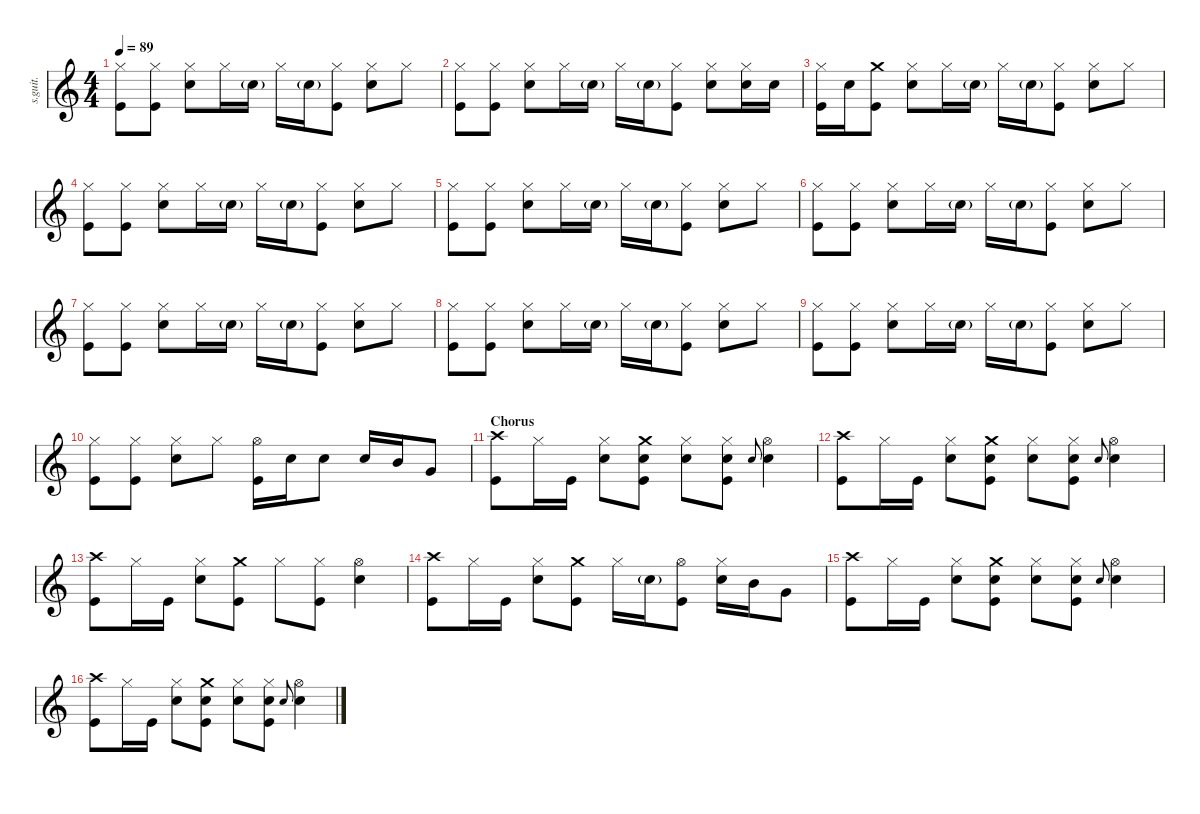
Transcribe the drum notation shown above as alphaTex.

\defaultSystemsLayout 4
\hideDynamics
\bracketExtendMode nobrackets
\track ("Chad Smith" "s.guit.") {instrument percussion}
\staff {score}
\articulation defaults
\ts (4 4)
\tempo 89
\clef g2
\ks c
("Hi-Hat (closed)" "Kick (hit)").8{lyrics (0 "") lyrics (1 "") lyrics (2 "") lyrics (3 "") lyrics (4 "") dy f} ("Hi-Hat (closed)" "Kick (hit)").8{lyrics (0 "") lyrics (1 "") lyrics (2 "") lyrics (3 "") lyrics (4 "")} ("Hi-Hat (closed)" "Snare (hit) 2").8{lyrics (0 "") lyrics (1 "") lyrics (2 "") lyrics (3 "") lyrics (4 "")} "Hi-Hat (closed)".16{lyrics (0 "") lyrics (1 "") lyrics (2 "") lyrics (3 "") lyrics (4 "")} "Snare (hit) 2"{g}.16{lyrics (0 "") lyrics (1 "") lyrics (2 "") lyrics (3 "") lyrics (4 "") dy ppp} "Hi-Hat (closed)".16{lyrics (0 "") lyrics (1 "") lyrics (2 "") lyrics (3 "") lyrics (4 "") dy fff} "Snare (hit) 2"{g}.16{lyrics (0 "") lyrics (1 "") lyrics (2 "") lyrics (3 "") lyrics (4 "") dy ppp} ("Hi-Hat (closed)" "Kick (hit)").8{lyrics (0 "") lyrics (1 "") lyrics (2 "") lyrics (3 "") lyrics (4 "") dy f} ("Hi-Hat (closed)" "Snare (hit) 2").8{lyrics (0 "") lyrics (1 "") lyrics (2 "") lyrics (3 "") lyrics (4 "")} "Hi-Hat (closed)".8{lyrics (0 "") lyrics (1 "") lyrics (2 "") lyrics (3 "") lyrics (4 "")} |
("Hi-Hat (closed)" "Kick (hit)").8{lyrics (0 "") lyrics (1 "") lyrics (2 "") lyrics (3 "") lyrics (4 "")} ("Hi-Hat (closed)" "Kick (hit)").8{lyrics (0 "") lyrics (1 "") lyrics (2 "") lyrics (3 "") lyrics (4 "")} ("Hi-Hat (closed)" "Snare (hit) 2").8{lyrics (0 "") lyrics (1 "") lyrics (2 "") lyrics (3 "") lyrics (4 "")} "Hi-Hat (closed)".16{lyrics (0 "") lyrics (1 "") lyrics (2 "") lyrics (3 "") lyrics (4 "")} "Snare (hit) 2"{g}.16{lyrics (0 "") lyrics (1 "") lyrics (2 "") lyrics (3 "") lyrics (4 "") dy ppp} "Hi-Hat (closed)".16{lyrics (0 "") lyrics (1 "") lyrics (2 "") lyrics (3 "") lyrics (4 "") dy fff} "Snare (hit) 2"{g}.16{lyrics (0 "") lyrics (1 "") lyrics (2 "") lyrics (3 "") lyrics (4 "") dy ppp} ("Hi-Hat (closed)" "Kick (hit)").8{lyrics (0 "") lyrics (1 "") lyrics (2 "") lyrics (3 "") lyrics (4 "") dy f} ("Hi-Hat (closed)" "Snare (hit) 2").8{lyrics (0 "") lyrics (1 "") lyrics (2 "") lyrics (3 "") lyrics (4 "")} ("Hi-Hat (closed)" "Snare (hit) 2").16{lyrics (0 "") lyrics (1 "") lyrics (2 "") lyrics (3 "") lyrics (4 "")} "Snare (hit) 2".16{lyrics (0 "") lyrics (1 "") lyrics (2 "") lyrics (3 "") lyrics (4 "")} |
("Hi-Hat (closed)" "Kick (hit)").16{lyrics (0 "") lyrics (1 "") lyrics (2 "") lyrics (3 "") lyrics (4 "")} "Snare (hit) 2".16{lyrics (0 "") lyrics (1 "") lyrics (2 "") lyrics (3 "") lyrics (4 "")} ("Crash medium (hit)" "Kick (hit)").8{lyrics (0 "") lyrics (1 "") lyrics (2 "") lyrics (3 "") lyrics (4 "")} ("Hi-Hat (closed)" "Snare (hit) 2").8{lyrics (0 "") lyrics (1 "") lyrics (2 "") lyrics (3 "") lyrics (4 "")} "Hi-Hat (closed)".16{lyrics (0 "") lyrics (1 "") lyrics (2 "") lyrics (3 "") lyrics (4 "")} "Snare (hit) 2"{g}.16{lyrics (0 "") lyrics (1 "") lyrics (2 "") lyrics (3 "") lyrics (4 "") dy ppp} "Hi-Hat (closed)".16{lyrics (0 "") lyrics (1 "") lyrics (2 "") lyrics (3 "") lyrics (4 "") dy fff} "Snare (hit) 2"{g}.16{lyrics (0 "") lyrics (1 "") lyrics (2 "") lyrics (3 "") lyrics (4 "") dy ppp} ("Hi-Hat (closed)" "Kick (hit)").8{lyrics (0 "") lyrics (1 "") lyrics (2 "") lyrics (3 "") lyrics (4 "") dy f} ("Hi-Hat (closed)" "Snare (hit) 2").8{lyrics (0 "") lyrics (1 "") lyrics (2 "") lyrics (3 "") lyrics (4 "")} "Hi-Hat (closed)".8{lyrics (0 "") lyrics (1 "") lyrics (2 "") lyrics (3 "") lyrics (4 "")} |
("Hi-Hat (closed)" "Kick (hit)").8{lyrics (0 "") lyrics (1 "") lyrics (2 "") lyrics (3 "") lyrics (4 "")} ("Hi-Hat (closed)" "Kick (hit)").8{lyrics (0 "") lyrics (1 "") lyrics (2 "") lyrics (3 "") lyrics (4 "")} ("Hi-Hat (closed)" "Snare (hit) 2").8{lyrics (0 "") lyrics (1 "") lyrics (2 "") lyrics (3 "") lyrics (4 "")} "Hi-Hat (closed)".16{lyrics (0 "") lyrics (1 "") lyrics (2 "") lyrics (3 "") lyrics (4 "")} "Snare (hit) 2"{g}.16{lyrics (0 "") lyrics (1 "") lyrics (2 "") lyrics (3 "") lyrics (4 "") dy ppp} "Hi-Hat (closed)".16{lyrics (0 "") lyrics (1 "") lyrics (2 "") lyrics (3 "") lyrics (4 "") dy fff} "Snare (hit) 2"{g}.16{lyrics (0 "") lyrics (1 "") lyrics (2 "") lyrics (3 "") lyrics (4 "") dy ppp} ("Hi-Hat (closed)" "Kick (hit)").8{lyrics (0 "") lyrics (1 "") lyrics (2 "") lyrics (3 "") lyrics (4 "") dy f} ("Hi-Hat (closed)" "Snare (hit) 2").8{lyrics (0 "") lyrics (1 "") lyrics (2 "") lyrics (3 "") lyrics (4 "")} "Hi-Hat (closed)".8{lyrics (0 "") lyrics (1 "") lyrics (2 "") lyrics (3 "") lyrics (4 "")} |
("Hi-Hat (closed)" "Kick (hit)").8{lyrics (0 "") lyrics (1 "") lyrics (2 "") lyrics (3 "") lyrics (4 "")} ("Hi-Hat (closed)" "Kick (hit)").8{lyrics (0 "") lyrics (1 "") lyrics (2 "") lyrics (3 "") lyrics (4 "")} ("Hi-Hat (closed)" "Snare (hit) 2").8{lyrics (0 "") lyrics (1 "") lyrics (2 "") lyrics (3 "") lyrics (4 "")} "Hi-Hat (closed)".16{lyrics (0 "") lyrics (1 "") lyrics (2 "") lyrics (3 "") lyrics (4 "")} "Snare (hit) 2"{g}.16{lyrics (0 "") lyrics (1 "") lyrics (2 "") lyrics (3 "") lyrics (4 "") dy ppp} "Hi-Hat (closed)".16{lyrics (0 "") lyrics (1 "") lyrics (2 "") lyrics (3 "") lyrics (4 "") dy fff} "Snare (hit) 2"{g}.16{lyrics (0 "") lyrics (1 "") lyrics (2 "") lyrics (3 "") lyrics (4 "") dy ppp} ("Hi-Hat (closed)" "Kick (hit)").8{lyrics (0 "") lyrics (1 "") lyrics (2 "") lyrics (3 "") lyrics (4 "") dy f} ("Hi-Hat (closed)" "Snare (hit) 2").8{lyrics (0 "") lyrics (1 "") lyrics (2 "") lyrics (3 "") lyrics (4 "")} "Hi-Hat (closed)".8{lyrics (0 "") lyrics (1 "") lyrics (2 "") lyrics (3 "") lyrics (4 "")} |
("Hi-Hat (closed)" "Kick (hit)").8{lyrics (0 "") lyrics (1 "") lyrics (2 "") lyrics (3 "") lyrics (4 "")} ("Hi-Hat (closed)" "Kick (hit)").8{lyrics (0 "") lyrics (1 "") lyrics (2 "") lyrics (3 "") lyrics (4 "")} ("Hi-Hat (closed)" "Snare (hit) 2").8{lyrics (0 "") lyrics (1 "") lyrics (2 "") lyrics (3 "") lyrics (4 "")} "Hi-Hat (closed)".16{lyrics (0 "") lyrics (1 "") lyrics (2 "") lyrics (3 "") lyrics (4 "")} "Snare (hit) 2"{g}.16{lyrics (0 "") lyrics (1 "") lyrics (2 "") lyrics (3 "") lyrics (4 "") dy ppp} "Hi-Hat (closed)".16{lyrics (0 "") lyrics (1 "") lyrics (2 "") lyrics (3 "") lyrics (4 "") dy fff} "Snare (hit) 2"{g}.16{lyrics (0 "") lyrics (1 "") lyrics (2 "") lyrics (3 "") lyrics (4 "") dy ppp} ("Hi-Hat (closed)" "Kick (hit)").8{lyrics (0 "") lyrics (1 "") lyrics (2 "") lyrics (3 "") lyrics (4 "") dy f} ("Hi-Hat (closed)" "Snare (hit) 2").8{lyrics (0 "") lyrics (1 "") lyrics (2 "") lyrics (3 "") lyrics (4 "")} "Hi-Hat (closed)".8{lyrics (0 "") lyrics (1 "") lyrics (2 "") lyrics (3 "") lyrics (4 "")} |
("Hi-Hat (closed)" "Kick (hit)").8{lyrics (0 "") lyrics (1 "") lyrics (2 "") lyrics (3 "") lyrics (4 "")} ("Hi-Hat (closed)" "Kick (hit)").8{lyrics (0 "") lyrics (1 "") lyrics (2 "") lyrics (3 "") lyrics (4 "")} ("Hi-Hat (closed)" "Snare (hit) 2").8{lyrics (0 "") lyrics (1 "") lyrics (2 "") lyrics (3 "") lyrics (4 "")} "Hi-Hat (closed)".16{lyrics (0 "") lyrics (1 "") lyrics (2 "") lyrics (3 "") lyrics (4 "")} "Snare (hit) 2"{g}.16{lyrics (0 "") lyrics (1 "") lyrics (2 "") lyrics (3 "") lyrics (4 "") dy ppp} "Hi-Hat (closed)".16{lyrics (0 "") lyrics (1 "") lyrics (2 "") lyrics (3 "") lyrics (4 "") dy fff} "Snare (hit) 2"{g}.16{lyrics (0 "") lyrics (1 "") lyrics (2 "") lyrics (3 "") lyrics (4 "") dy ppp} ("Hi-Hat (closed)" "Kick (hit)").8{lyrics (0 "") lyrics (1 "") lyrics (2 "") lyrics (3 "") lyrics (4 "") dy f} ("Hi-Hat (closed)" "Snare (hit) 2").8{lyrics (0 "") lyrics (1 "") lyrics (2 "") lyrics (3 "") lyrics (4 "")} "Hi-Hat (closed)".8{lyrics (0 "") lyrics (1 "") lyrics (2 "") lyrics (3 "") lyrics (4 "")} |
("Hi-Hat (closed)" "Kick (hit)").8{lyrics (0 "") lyrics (1 "") lyrics (2 "") lyrics (3 "") lyrics (4 "")} ("Hi-Hat (closed)" "Kick (hit)").8{lyrics (0 "") lyrics (1 "") lyrics (2 "") lyrics (3 "") lyrics (4 "")} ("Hi-Hat (closed)" "Snare (hit) 2").8{lyrics (0 "") lyrics (1 "") lyrics (2 "") lyrics (3 "") lyrics (4 "")} "Hi-Hat (closed)".16{lyrics (0 "") lyrics (1 "") lyrics (2 "") lyrics (3 "") lyrics (4 "")} "Snare (hit) 2"{g}.16{lyrics (0 "") lyrics (1 "") lyrics (2 "") lyrics (3 "") lyrics (4 "") dy ppp} "Hi-Hat (closed)".16{lyrics (0 "") lyrics (1 "") lyrics (2 "") lyrics (3 "") lyrics (4 "") dy fff} "Snare (hit) 2"{g}.16{lyrics (0 "") lyrics (1 "") lyrics (2 "") lyrics (3 "") lyrics (4 "") dy ppp} ("Hi-Hat (closed)" "Kick (hit)").8{lyrics (0 "") lyrics (1 "") lyrics (2 "") lyrics (3 "") lyrics (4 "") dy f} ("Hi-Hat (closed)" "Snare (hit) 2").8{lyrics (0 "") lyrics (1 "") lyrics (2 "") lyrics (3 "") lyrics (4 "")} "Hi-Hat (closed)".8{lyrics (0 "") lyrics (1 "") lyrics (2 "") lyrics (3 "") lyrics (4 "")} |
("Hi-Hat (closed)" "Kick (hit)").8{lyrics (0 "") lyrics (1 "") lyrics (2 "") lyrics (3 "") lyrics (4 "")} ("Hi-Hat (closed)" "Kick (hit)").8{lyrics (0 "") lyrics (1 "") lyrics (2 "") lyrics (3 "") lyrics (4 "")} ("Hi-Hat (closed)" "Snare (hit) 2").8{lyrics (0 "") lyrics (1 "") lyrics (2 "") lyrics (3 "") lyrics (4 "")} "Hi-Hat (closed)".16{lyrics (0 "") lyrics (1 "") lyrics (2 "") lyrics (3 "") lyrics (4 "")} "Snare (hit) 2"{g}.16{lyrics (0 "") lyrics (1 "") lyrics (2 "") lyrics (3 "") lyrics (4 "") dy ppp} "Hi-Hat (closed)".16{lyrics (0 "") lyrics (1 "") lyrics (2 "") lyrics (3 "") lyrics (4 "") dy fff} "Snare (hit) 2"{g}.16{lyrics (0 "") lyrics (1 "") lyrics (2 "") lyrics (3 "") lyrics (4 "") dy ppp} ("Hi-Hat (closed)" "Kick (hit)").8{lyrics (0 "") lyrics (1 "") lyrics (2 "") lyrics (3 "") lyrics (4 "") dy f} ("Hi-Hat (closed)" "Snare (hit) 2").8{lyrics (0 "") lyrics (1 "") lyrics (2 "") lyrics (3 "") lyrics (4 "")} "Hi-Hat (closed)".8{lyrics (0 "") lyrics (1 "") lyrics (2 "") lyrics (3 "") lyrics (4 "")} |
("Hi-Hat (closed)" "Kick (hit)").8{lyrics (0 "") lyrics (1 "") lyrics (2 "") lyrics (3 "") lyrics (4 "")} ("Hi-Hat (closed)" "Kick (hit)").8{lyrics (0 "") lyrics (1 "") lyrics (2 "") lyrics (3 "") lyrics (4 "")} ("Hi-Hat (closed)" "Snare (hit) 2").8{lyrics (0 "") lyrics (1 "") lyrics (2 "") lyrics (3 "") lyrics (4 "")} "Hi-Hat (closed)".8{lyrics (0 "") lyrics (1 "") lyrics (2 "") lyrics (3 "") lyrics (4 "")} ("Hi-Hat (open)" "Kick (hit)").16{lyrics (0 "") lyrics (1 "") lyrics (2 "") lyrics (3 "") lyrics (4 "")} "Snare (hit) 2".16{lyrics (0 "") lyrics (1 "") lyrics (2 "") lyrics (3 "") lyrics (4 "")} "Snare (hit) 2".8{lyrics (0 "") lyrics (1 "") lyrics (2 "") lyrics (3 "") lyrics (4 "")} "Snare (hit) 2".16{lyrics (0 "") lyrics (1 "") lyrics (2 "") lyrics (3 "") lyrics (4 "")} "Mid Tom (hit)".16{lyrics (0 "") lyrics (1 "") lyrics (2 "") lyrics (3 "") lyrics (4 "") dy fff} "Very Low Tom (hit)".8{lyrics (0 "") lyrics (1 "") lyrics (2 "") lyrics (3 "") lyrics (4 "")} |
\section ("" "Chorus")
("Crash high (hit)" "Kick (hit)").8{lyrics (0 "") lyrics (1 "") lyrics (2 "") lyrics (3 "") lyrics (4 "") dy f} "Hi-Hat (closed)".16{lyrics (0 "") lyrics (1 "") lyrics (2 "") lyrics (3 "") lyrics (4 "")} "Kick (hit)".16{lyrics (0 "") lyrics (1 "") lyrics (2 "") lyrics (3 "") lyrics (4 "")} ("Hi-Hat (closed)" "Snare (hit) 2").8{lyrics (0 "") lyrics (1 "") lyrics (2 "") lyrics (3 "") lyrics (4 "")} ("Crash medium (hit)" "Hand Clap (hit)" "Kick (hit)").8{lyrics (0 "") lyrics (1 "") lyrics (2 "") lyrics (3 "") lyrics (4 "")} ("Hi-Hat (closed)" "Hand Clap (hit)").8{lyrics (0 "") lyrics (1 "") lyrics (2 "") lyrics (3 "") lyrics (4 "")} ("Hi-Hat (closed)" "Hand Clap (hit)" "Kick (hit)").8{lyrics (0 "") lyrics (1 "") lyrics (2 "") lyrics (3 "") lyrics (4 "")} "Snare (hit) 2".8{lyrics (0 "") lyrics (1 "") lyrics (2 "") lyrics (3 "") lyrics (4 "") gr onbeat} ("Hi-Hat (open)" "Snare (hit) 2").4{lyrics (0 "") lyrics (1 "") lyrics (2 "") lyrics (3 "") lyrics (4 "")} |
("Crash high (hit)" "Kick (hit)").8{lyrics (0 "") lyrics (1 "") lyrics (2 "") lyrics (3 "") lyrics (4 "")} "Hi-Hat (closed)".16{lyrics (0 "") lyrics (1 "") lyrics (2 "") lyrics (3 "") lyrics (4 "")} "Kick (hit)".16{lyrics (0 "") lyrics (1 "") lyrics (2 "") lyrics (3 "") lyrics (4 "")} ("Hi-Hat (closed)" "Snare (hit) 2").8{lyrics (0 "") lyrics (1 "") lyrics (2 "") lyrics (3 "") lyrics (4 "")} ("Crash medium (hit)" "Hand Clap (hit)" "Kick (hit)").8{lyrics (0 "") lyrics (1 "") lyrics (2 "") lyrics (3 "") lyrics (4 "")} ("Hi-Hat (closed)" "Hand Clap (hit)").8{lyrics (0 "") lyrics (1 "") lyrics (2 "") lyrics (3 "") lyrics (4 "")} ("Hi-Hat (closed)" "Hand Clap (hit)" "Kick (hit)").8{lyrics (0 "") lyrics (1 "") lyrics (2 "") lyrics (3 "") lyrics (4 "")} "Snare (hit) 2".8{lyrics (0 "") lyrics (1 "") lyrics (2 "") lyrics (3 "") lyrics (4 "") gr onbeat} ("Hi-Hat (open)" "Snare (hit) 2").4{lyrics (0 "") lyrics (1 "") lyrics (2 "") lyrics (3 "") lyrics (4 "")} |
("Crash high (hit)" "Kick (hit)").8{lyrics (0 "") lyrics (1 "") lyrics (2 "") lyrics (3 "") lyrics (4 "")} "Hi-Hat (closed)".16{lyrics (0 "") lyrics (1 "") lyrics (2 "") lyrics (3 "") lyrics (4 "")} "Kick (hit)".16{lyrics (0 "") lyrics (1 "") lyrics (2 "") lyrics (3 "") lyrics (4 "")} ("Hi-Hat (closed)" "Snare (hit) 2").8{lyrics (0 "") lyrics (1 "") lyrics (2 "") lyrics (3 "") lyrics (4 "")} ("Crash medium (hit)" "Kick (hit)").8{lyrics (0 "") lyrics (1 "") lyrics (2 "") lyrics (3 "") lyrics (4 "")} "Hi-Hat (closed)".8{lyrics (0 "") lyrics (1 "") lyrics (2 "") lyrics (3 "") lyrics (4 "") dy fff} ("Hi-Hat (closed)" "Kick (hit)").8{lyrics (0 "") lyrics (1 "") lyrics (2 "") lyrics (3 "") lyrics (4 "") dy f} ("Hi-Hat (open)" "Snare (hit) 2").4{lyrics (0 "") lyrics (1 "") lyrics (2 "") lyrics (3 "") lyrics (4 "")} |
("Crash high (hit)" "Kick (hit)").8{lyrics (0 "") lyrics (1 "") lyrics (2 "") lyrics (3 "") lyrics (4 "")} "Hi-Hat (closed)".16{lyrics (0 "") lyrics (1 "") lyrics (2 "") lyrics (3 "") lyrics (4 "")} "Kick (hit)".16{lyrics (0 "") lyrics (1 "") lyrics (2 "") lyrics (3 "") lyrics (4 "")} ("Hi-Hat (closed)" "Snare (hit) 2").8{lyrics (0 "") lyrics (1 "") lyrics (2 "") lyrics (3 "") lyrics (4 "")} ("Crash medium (hit)" "Kick (hit)").8{lyrics (0 "") lyrics (1 "") lyrics (2 "") lyrics (3 "") lyrics (4 "")} "Hi-Hat (closed)".16{lyrics (0 "") lyrics (1 "") lyrics (2 "") lyrics (3 "") lyrics (4 "") dy fff} "Snare (hit) 2"{g}.16{lyrics (0 "") lyrics (1 "") lyrics (2 "") lyrics (3 "") lyrics (4 "") dy ppp} ("Hi-Hat (open)" "Kick (hit)").8{lyrics (0 "") lyrics (1 "") lyrics (2 "") lyrics (3 "") lyrics (4 "") dy f} ("Hi-Hat (closed)" "Snare (hit) 2").16{lyrics (0 "") lyrics (1 "") lyrics (2 "") lyrics (3 "") lyrics (4 "")} "Mid Tom (hit)".16{lyrics (0 "") lyrics (1 "") lyrics (2 "") lyrics (3 "") lyrics (4 "")} "Very Low Tom (hit)".8{lyrics (0 "") lyrics (1 "") lyrics (2 "") lyrics (3 "") lyrics (4 "") dy fff} |
("Crash high (hit)" "Kick (hit)").8{lyrics (0 "") lyrics (1 "") lyrics (2 "") lyrics (3 "") lyrics (4 "") dy f} "Hi-Hat (closed)".16{lyrics (0 "") lyrics (1 "") lyrics (2 "") lyrics (3 "") lyrics (4 "")} "Kick (hit)".16{lyrics (0 "") lyrics (1 "") lyrics (2 "") lyrics (3 "") lyrics (4 "")} ("Hi-Hat (closed)" "Snare (hit) 2").8{lyrics (0 "") lyrics (1 "") lyrics (2 "") lyrics (3 "") lyrics (4 "")} ("Crash medium (hit)" "Hand Clap (hit)" "Kick (hit)").8{lyrics (0 "") lyrics (1 "") lyrics (2 "") lyrics (3 "") lyrics (4 "")} ("Hi-Hat (closed)" "Hand Clap (hit)").8{lyrics (0 "") lyrics (1 "") lyrics (2 "") lyrics (3 "") lyrics (4 "")} ("Hi-Hat (closed)" "Hand Clap (hit)" "Kick (hit)").8{lyrics (0 "") lyrics (1 "") lyrics (2 "") lyrics (3 "") lyrics (4 "")} "Snare (hit) 2".8{lyrics (0 "") lyrics (1 "") lyrics (2 "") lyrics (3 "") lyrics (4 "") gr onbeat} ("Hi-Hat (open)" "Snare (hit) 2").4{lyrics (0 "") lyrics (1 "") lyrics (2 "") lyrics (3 "") lyrics (4 "")} |
("Crash high (hit)" "Kick (hit)").8{lyrics (0 "") lyrics (1 "") lyrics (2 "") lyrics (3 "") lyrics (4 "")} "Hi-Hat (closed)".16{lyrics (0 "") lyrics (1 "") lyrics (2 "") lyrics (3 "") lyrics (4 "")} "Kick (hit)".16{lyrics (0 "") lyrics (1 "") lyrics (2 "") lyrics (3 "") lyrics (4 "")} ("Hi-Hat (closed)" "Snare (hit) 2").8{lyrics (0 "") lyrics (1 "") lyrics (2 "") lyrics (3 "") lyrics (4 "")} ("Crash medium (hit)" "Hand Clap (hit)" "Kick (hit)").8{lyrics (0 "") lyrics (1 "") lyrics (2 "") lyrics (3 "") lyrics (4 "")} ("Hi-Hat (closed)" "Hand Clap (hit)").8{lyrics (0 "") lyrics (1 "") lyrics (2 "") lyrics (3 "") lyrics (4 "")} ("Hi-Hat (closed)" "Hand Clap (hit)" "Kick (hit)").8{lyrics (0 "") lyrics (1 "") lyrics (2 "") lyrics (3 "") lyrics (4 "")} "Snare (hit) 2".8{lyrics (0 "") lyrics (1 "") lyrics (2 "") lyrics (3 "") lyrics (4 "") gr onbeat} ("Hi-Hat (open)" "Snare (hit) 2").4{lyrics (0 "") lyrics (1 "") lyrics (2 "") lyrics (3 "") lyrics (4 "")}
